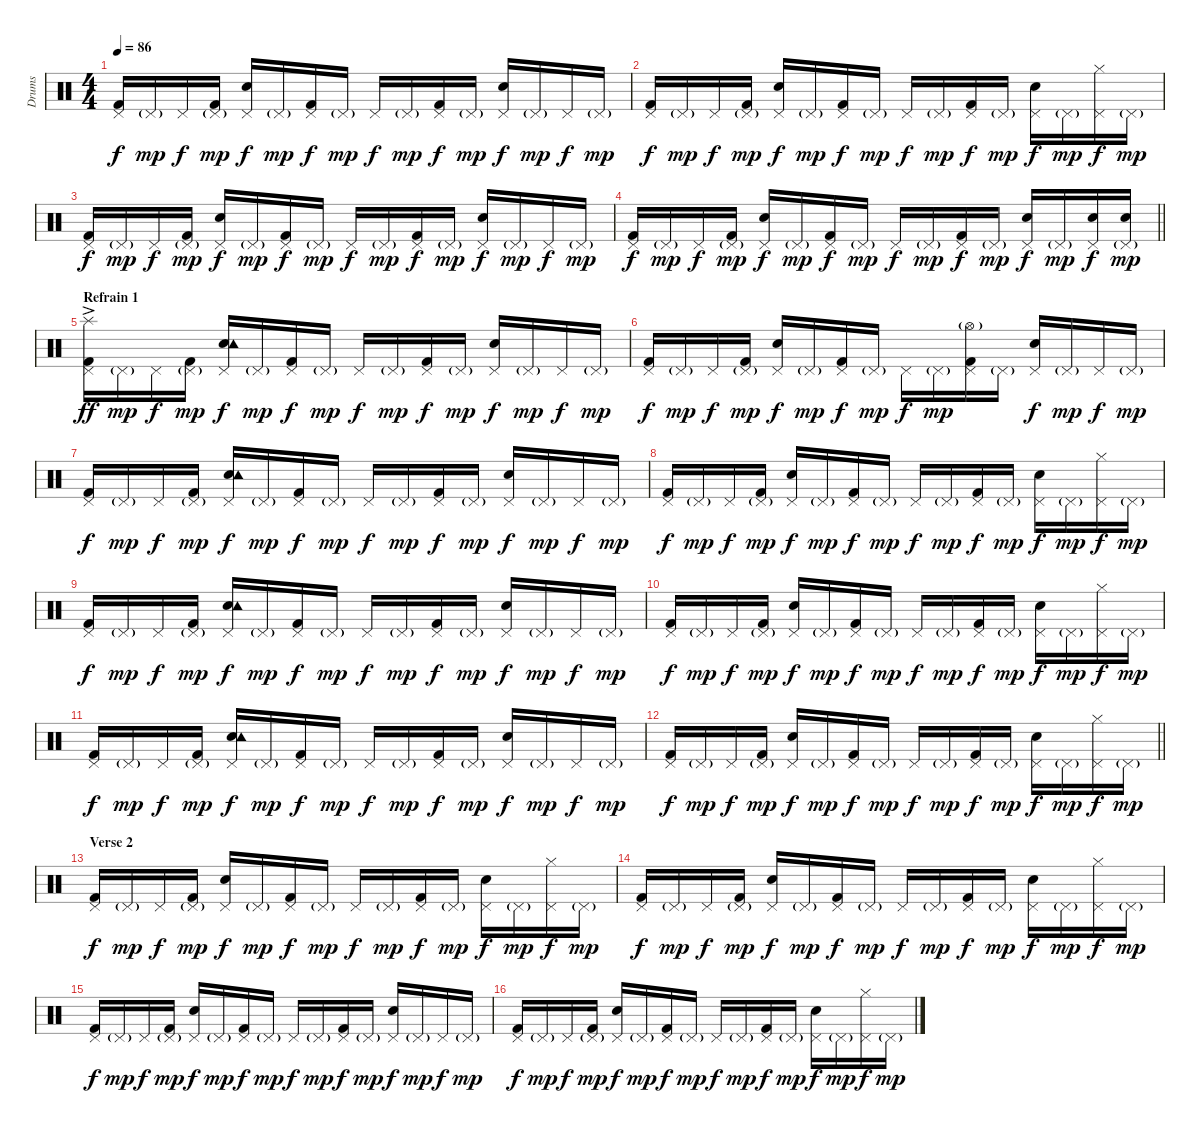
\track ("Drums" "Drums") {instrument percussion}
\staff {score}
\articulation defaults
\ts (4 4)
\tempo 86
\clef neutral
\ks c
("Pedal Hi-Hat (hit)" "Kick (hit) 2").16{dy f} "Pedal Hi-Hat (hit)"{g}.16{dy mp} "Pedal Hi-Hat (hit)".16{dy f} ("Pedal Hi-Hat (hit)"{g} "Kick (hit) 2").16{dy mp} ("Pedal Hi-Hat (hit)" "Snare (hit) 2").16{dy f} "Pedal Hi-Hat (hit)"{g}.16{dy mp} ("Pedal Hi-Hat (hit)" "Kick (hit) 2").16{dy f} "Pedal Hi-Hat (hit)"{g}.16{dy mp} "Pedal Hi-Hat (hit)".16{dy f} "Pedal Hi-Hat (hit)"{g}.16{dy mp} ("Pedal Hi-Hat (hit)" "Kick (hit) 2").16{dy f} "Pedal Hi-Hat (hit)"{g}.16{dy mp} ("Pedal Hi-Hat (hit)" "Snare (hit) 2").16{dy f} "Pedal Hi-Hat (hit)"{g}.16{dy mp} "Pedal Hi-Hat (hit)".16{dy f} "Pedal Hi-Hat (hit)"{g}.16{dy mp} |
("Pedal Hi-Hat (hit)" "Kick (hit) 2").16{dy f} "Pedal Hi-Hat (hit)"{g}.16{dy mp} "Pedal Hi-Hat (hit)".16{dy f} ("Pedal Hi-Hat (hit)"{g} "Kick (hit) 2").16{dy mp} ("Pedal Hi-Hat (hit)" "Snare (hit) 2").16{dy f} "Pedal Hi-Hat (hit)"{g}.16{dy mp} ("Pedal Hi-Hat (hit)" "Kick (hit) 2").16{dy f} "Pedal Hi-Hat (hit)"{g}.16{dy mp} "Pedal Hi-Hat (hit)".16{dy f} "Pedal Hi-Hat (hit)"{g}.16{dy mp} ("Pedal Hi-Hat (hit)" "Kick (hit) 2").16{dy f} "Pedal Hi-Hat (hit)"{g}.16{dy mp} ("Pedal Hi-Hat (hit)" "Snare (hit) 2").16{dy f} "Pedal Hi-Hat (hit)"{g}.16{dy mp} ("Pedal Hi-Hat (hit)" "Hi-Hat (closed)").16{dy f} "Pedal Hi-Hat (hit)"{g}.16{dy mp} |
("Pedal Hi-Hat (hit)" "Kick (hit) 2").16{dy f} "Pedal Hi-Hat (hit)"{g}.16{dy mp} "Pedal Hi-Hat (hit)".16{dy f} ("Pedal Hi-Hat (hit)"{g} "Kick (hit) 2").16{dy mp} ("Pedal Hi-Hat (hit)" "Snare (hit) 2").16{dy f} "Pedal Hi-Hat (hit)"{g}.16{dy mp} ("Pedal Hi-Hat (hit)" "Kick (hit) 2").16{dy f} "Pedal Hi-Hat (hit)"{g}.16{dy mp} "Pedal Hi-Hat (hit)".16{dy f} "Pedal Hi-Hat (hit)"{g}.16{dy mp} ("Pedal Hi-Hat (hit)" "Kick (hit) 2").16{dy f} "Pedal Hi-Hat (hit)"{g}.16{dy mp} ("Pedal Hi-Hat (hit)" "Snare (hit) 2").16{dy f} "Pedal Hi-Hat (hit)"{g}.16{dy mp} "Pedal Hi-Hat (hit)".16{dy f} "Pedal Hi-Hat (hit)"{g}.16{dy mp} |
\barLineRight lightlight
("Pedal Hi-Hat (hit)" "Kick (hit) 2").16{dy f} "Pedal Hi-Hat (hit)"{g}.16{dy mp} "Pedal Hi-Hat (hit)".16{dy f} ("Pedal Hi-Hat (hit)"{g} "Kick (hit) 2").16{dy mp} ("Pedal Hi-Hat (hit)" "Snare (hit) 2").16{dy f} "Pedal Hi-Hat (hit)"{g}.16{dy mp} ("Pedal Hi-Hat (hit)" "Kick (hit) 2").16{dy f} "Pedal Hi-Hat (hit)"{g}.16{dy mp} "Pedal Hi-Hat (hit)".16{dy f} "Pedal Hi-Hat (hit)"{g}.16{dy mp} ("Pedal Hi-Hat (hit)" "Kick (hit) 2").16{dy f} "Pedal Hi-Hat (hit)"{g}.16{dy mp} ("Pedal Hi-Hat (hit)" "Snare (hit) 2").16{dy f} "Pedal Hi-Hat (hit)"{g}.16{dy mp} ("Pedal Hi-Hat (hit)" "Snare (hit) 2").16{dy f} ("Pedal Hi-Hat (hit)"{g} "Snare (hit) 2").16{dy mp} |
\section ("" "Refrain 1")
("Pedal Hi-Hat (hit)" "Kick (hit) 2" "Splash (hit)"{ac}).16{dy ff} "Pedal Hi-Hat (hit)"{g}.16{dy mp} "Pedal Hi-Hat (hit)".16{dy f} ("Pedal Hi-Hat (hit)"{g} "Kick (hit) 2").16{dy mp} ("Pedal Hi-Hat (hit)" "Snare (hit) 2" "Tambourine (hit)").16{dy f} "Pedal Hi-Hat (hit)"{g}.16{dy mp} ("Pedal Hi-Hat (hit)" "Kick (hit) 2").16{dy f} "Pedal Hi-Hat (hit)"{g}.16{dy mp} "Pedal Hi-Hat (hit)".16{dy f} "Pedal Hi-Hat (hit)"{g}.16{dy mp} ("Pedal Hi-Hat (hit)" "Kick (hit) 2").16{dy f} "Pedal Hi-Hat (hit)"{g}.16{dy mp} ("Pedal Hi-Hat (hit)" "Snare (hit) 2").16{dy f} "Pedal Hi-Hat (hit)"{g}.16{dy mp} "Pedal Hi-Hat (hit)".16{dy f} "Pedal Hi-Hat (hit)"{g}.16{dy mp} |
("Pedal Hi-Hat (hit)" "Kick (hit) 2").16{dy f} "Pedal Hi-Hat (hit)"{g}.16{dy mp} "Pedal Hi-Hat (hit)".16{dy f} ("Pedal Hi-Hat (hit)"{g} "Kick (hit) 2").16{dy mp} ("Pedal Hi-Hat (hit)" "Snare (hit) 2").16{dy f} "Pedal Hi-Hat (hit)"{g}.16{dy mp} ("Pedal Hi-Hat (hit)" "Kick (hit) 2").16{dy f} "Pedal Hi-Hat (hit)"{g}.16{dy mp} "Pedal Hi-Hat (hit)".16{dy f} "Pedal Hi-Hat (hit)"{g}.16{dy mp} ("Pedal Hi-Hat (hit)" "Kick (hit) 2" "Hi-Hat (open)"{g}).16 "Pedal Hi-Hat (hit)"{g}.16 ("Pedal Hi-Hat (hit)" "Snare (hit) 2").16{dy f} "Pedal Hi-Hat (hit)"{g}.16{dy mp} "Pedal Hi-Hat (hit)".16{dy f} "Pedal Hi-Hat (hit)"{g}.16{dy mp} |
("Pedal Hi-Hat (hit)" "Kick (hit) 2").16{dy f} "Pedal Hi-Hat (hit)"{g}.16{dy mp} "Pedal Hi-Hat (hit)".16{dy f} ("Pedal Hi-Hat (hit)"{g} "Kick (hit) 2").16{dy mp} ("Pedal Hi-Hat (hit)" "Snare (hit) 2" "Tambourine (hit)").16{dy f} "Pedal Hi-Hat (hit)"{g}.16{dy mp} ("Pedal Hi-Hat (hit)" "Kick (hit) 2").16{dy f} "Pedal Hi-Hat (hit)"{g}.16{dy mp} "Pedal Hi-Hat (hit)".16{dy f} "Pedal Hi-Hat (hit)"{g}.16{dy mp} ("Pedal Hi-Hat (hit)" "Kick (hit) 2").16{dy f} "Pedal Hi-Hat (hit)"{g}.16{dy mp} ("Pedal Hi-Hat (hit)" "Snare (hit) 2").16{dy f} "Pedal Hi-Hat (hit)"{g}.16{dy mp} "Pedal Hi-Hat (hit)".16{dy f} "Pedal Hi-Hat (hit)"{g}.16{dy mp} |
("Pedal Hi-Hat (hit)" "Kick (hit) 2").16{dy f} "Pedal Hi-Hat (hit)"{g}.16{dy mp} "Pedal Hi-Hat (hit)".16{dy f} ("Pedal Hi-Hat (hit)"{g} "Kick (hit) 2").16{dy mp} ("Pedal Hi-Hat (hit)" "Snare (hit) 2").16{dy f} "Pedal Hi-Hat (hit)"{g}.16{dy mp} ("Pedal Hi-Hat (hit)" "Kick (hit) 2").16{dy f} "Pedal Hi-Hat (hit)"{g}.16{dy mp} "Pedal Hi-Hat (hit)".16{dy f} "Pedal Hi-Hat (hit)"{g}.16{dy mp} ("Pedal Hi-Hat (hit)" "Kick (hit) 2").16{dy f} "Pedal Hi-Hat (hit)"{g}.16{dy mp} ("Pedal Hi-Hat (hit)" "Snare (hit) 2").16{dy f} "Pedal Hi-Hat (hit)"{g}.16{dy mp} ("Pedal Hi-Hat (hit)" "Hi-Hat (closed)").16{dy f} "Pedal Hi-Hat (hit)"{g}.16{dy mp} |
("Pedal Hi-Hat (hit)" "Kick (hit) 2").16{dy f} "Pedal Hi-Hat (hit)"{g}.16{dy mp} "Pedal Hi-Hat (hit)".16{dy f} ("Pedal Hi-Hat (hit)"{g} "Kick (hit) 2").16{dy mp} ("Pedal Hi-Hat (hit)" "Snare (hit) 2" "Tambourine (hit)").16{dy f} "Pedal Hi-Hat (hit)"{g}.16{dy mp} ("Pedal Hi-Hat (hit)" "Kick (hit) 2").16{dy f} "Pedal Hi-Hat (hit)"{g}.16{dy mp} "Pedal Hi-Hat (hit)".16{dy f} "Pedal Hi-Hat (hit)"{g}.16{dy mp} ("Pedal Hi-Hat (hit)" "Kick (hit) 2").16{dy f} "Pedal Hi-Hat (hit)"{g}.16{dy mp} ("Pedal Hi-Hat (hit)" "Snare (hit) 2").16{dy f} "Pedal Hi-Hat (hit)"{g}.16{dy mp} "Pedal Hi-Hat (hit)".16{dy f} "Pedal Hi-Hat (hit)"{g}.16{dy mp} |
("Pedal Hi-Hat (hit)" "Kick (hit) 2").16{dy f} "Pedal Hi-Hat (hit)"{g}.16{dy mp} "Pedal Hi-Hat (hit)".16{dy f} ("Pedal Hi-Hat (hit)"{g} "Kick (hit) 2").16{dy mp} ("Pedal Hi-Hat (hit)" "Snare (hit) 2").16{dy f} "Pedal Hi-Hat (hit)"{g}.16{dy mp} ("Pedal Hi-Hat (hit)" "Kick (hit) 2").16{dy f} "Pedal Hi-Hat (hit)"{g}.16{dy mp} "Pedal Hi-Hat (hit)".16{dy f} "Pedal Hi-Hat (hit)"{g}.16{dy mp} ("Pedal Hi-Hat (hit)" "Kick (hit) 2").16{dy f} "Pedal Hi-Hat (hit)"{g}.16{dy mp} ("Pedal Hi-Hat (hit)" "Snare (hit) 2").16{dy f} "Pedal Hi-Hat (hit)"{g}.16{dy mp} ("Pedal Hi-Hat (hit)" "Hi-Hat (closed)").16{dy f} "Pedal Hi-Hat (hit)"{g}.16{dy mp} |
("Pedal Hi-Hat (hit)" "Kick (hit) 2").16{dy f} "Pedal Hi-Hat (hit)"{g}.16{dy mp} "Pedal Hi-Hat (hit)".16{dy f} ("Pedal Hi-Hat (hit)"{g} "Kick (hit) 2").16{dy mp} ("Pedal Hi-Hat (hit)" "Snare (hit) 2" "Tambourine (hit)").16{dy f} "Pedal Hi-Hat (hit)"{g}.16{dy mp} ("Pedal Hi-Hat (hit)" "Kick (hit) 2").16{dy f} "Pedal Hi-Hat (hit)"{g}.16{dy mp} "Pedal Hi-Hat (hit)".16{dy f} "Pedal Hi-Hat (hit)"{g}.16{dy mp} ("Pedal Hi-Hat (hit)" "Kick (hit) 2").16{dy f} "Pedal Hi-Hat (hit)"{g}.16{dy mp} ("Pedal Hi-Hat (hit)" "Snare (hit) 2").16{dy f} "Pedal Hi-Hat (hit)"{g}.16{dy mp} "Pedal Hi-Hat (hit)".16{dy f} "Pedal Hi-Hat (hit)"{g}.16{dy mp} |
\barLineRight lightlight
("Pedal Hi-Hat (hit)" "Kick (hit) 2").16{dy f} "Pedal Hi-Hat (hit)"{g}.16{dy mp} "Pedal Hi-Hat (hit)".16{dy f} ("Pedal Hi-Hat (hit)"{g} "Kick (hit) 2").16{dy mp} ("Pedal Hi-Hat (hit)" "Snare (hit) 2").16{dy f} "Pedal Hi-Hat (hit)"{g}.16{dy mp} ("Pedal Hi-Hat (hit)" "Kick (hit) 2").16{dy f} "Pedal Hi-Hat (hit)"{g}.16{dy mp} "Pedal Hi-Hat (hit)".16{dy f} "Pedal Hi-Hat (hit)"{g}.16{dy mp} ("Pedal Hi-Hat (hit)" "Kick (hit) 2").16{dy f} "Pedal Hi-Hat (hit)"{g}.16{dy mp} ("Pedal Hi-Hat (hit)" "Snare (hit) 2").16{dy f} "Pedal Hi-Hat (hit)"{g}.16{dy mp} ("Pedal Hi-Hat (hit)" "Hi-Hat (closed)").16{dy f} "Pedal Hi-Hat (hit)"{g}.16{dy mp} |
\section ("" "Verse 2")
("Pedal Hi-Hat (hit)" "Kick (hit) 2").16{dy f} "Pedal Hi-Hat (hit)"{g}.16{dy mp} "Pedal Hi-Hat (hit)".16{dy f} ("Pedal Hi-Hat (hit)"{g} "Kick (hit) 2").16{dy mp} ("Pedal Hi-Hat (hit)" "Snare (hit) 2").16{dy f} "Pedal Hi-Hat (hit)"{g}.16{dy mp} ("Pedal Hi-Hat (hit)" "Kick (hit) 2").16{dy f} "Pedal Hi-Hat (hit)"{g}.16{dy mp} "Pedal Hi-Hat (hit)".16{dy f} "Pedal Hi-Hat (hit)"{g}.16{dy mp} ("Pedal Hi-Hat (hit)" "Kick (hit) 2").16{dy f} "Pedal Hi-Hat (hit)"{g}.16{dy mp} ("Pedal Hi-Hat (hit)" "Snare (hit) 2").16{dy f} "Pedal Hi-Hat (hit)"{g}.16{dy mp} ("Pedal Hi-Hat (hit)" "Hi-Hat (closed)").16{dy f} "Pedal Hi-Hat (hit)"{g}.16{dy mp} |
("Pedal Hi-Hat (hit)" "Kick (hit) 2").16{dy f} "Pedal Hi-Hat (hit)"{g}.16{dy mp} "Pedal Hi-Hat (hit)".16{dy f} ("Pedal Hi-Hat (hit)"{g} "Kick (hit) 2").16{dy mp} ("Pedal Hi-Hat (hit)" "Snare (hit) 2").16{dy f} "Pedal Hi-Hat (hit)"{g}.16{dy mp} ("Pedal Hi-Hat (hit)" "Kick (hit) 2").16{dy f} "Pedal Hi-Hat (hit)"{g}.16{dy mp} "Pedal Hi-Hat (hit)".16{dy f} "Pedal Hi-Hat (hit)"{g}.16{dy mp} ("Pedal Hi-Hat (hit)" "Kick (hit) 2").16{dy f} "Pedal Hi-Hat (hit)"{g}.16{dy mp} ("Pedal Hi-Hat (hit)" "Snare (hit) 2").16{dy f} "Pedal Hi-Hat (hit)"{g}.16{dy mp} ("Pedal Hi-Hat (hit)" "Hi-Hat (closed)").16{dy f} "Pedal Hi-Hat (hit)"{g}.16{dy mp} |
("Pedal Hi-Hat (hit)" "Kick (hit) 2").16{dy f} "Pedal Hi-Hat (hit)"{g}.16{dy mp} "Pedal Hi-Hat (hit)".16{dy f} ("Pedal Hi-Hat (hit)"{g} "Kick (hit) 2").16{dy mp} ("Pedal Hi-Hat (hit)" "Snare (hit) 2").16{dy f} "Pedal Hi-Hat (hit)"{g}.16{dy mp} ("Pedal Hi-Hat (hit)" "Kick (hit) 2").16{dy f} "Pedal Hi-Hat (hit)"{g}.16{dy mp} "Pedal Hi-Hat (hit)".16{dy f} "Pedal Hi-Hat (hit)"{g}.16{dy mp} ("Pedal Hi-Hat (hit)" "Kick (hit) 2").16{dy f} "Pedal Hi-Hat (hit)"{g}.16{dy mp} ("Pedal Hi-Hat (hit)" "Snare (hit) 2").16{dy f} "Pedal Hi-Hat (hit)"{g}.16{dy mp} "Pedal Hi-Hat (hit)".16{dy f} "Pedal Hi-Hat (hit)"{g}.16{dy mp} |
("Pedal Hi-Hat (hit)" "Kick (hit) 2").16{dy f} "Pedal Hi-Hat (hit)"{g}.16{dy mp} "Pedal Hi-Hat (hit)".16{dy f} ("Pedal Hi-Hat (hit)"{g} "Kick (hit) 2").16{dy mp} ("Pedal Hi-Hat (hit)" "Snare (hit) 2").16{dy f} "Pedal Hi-Hat (hit)"{g}.16{dy mp} ("Pedal Hi-Hat (hit)" "Kick (hit) 2").16{dy f} "Pedal Hi-Hat (hit)"{g}.16{dy mp} "Pedal Hi-Hat (hit)".16{dy f} "Pedal Hi-Hat (hit)"{g}.16{dy mp} ("Pedal Hi-Hat (hit)" "Kick (hit) 2").16{dy f} "Pedal Hi-Hat (hit)"{g}.16{dy mp} ("Pedal Hi-Hat (hit)" "Snare (hit) 2").16{dy f} "Pedal Hi-Hat (hit)"{g}.16{dy mp} ("Pedal Hi-Hat (hit)" "Hi-Hat (closed)").16{dy f} "Pedal Hi-Hat (hit)"{g}.16{dy mp}
